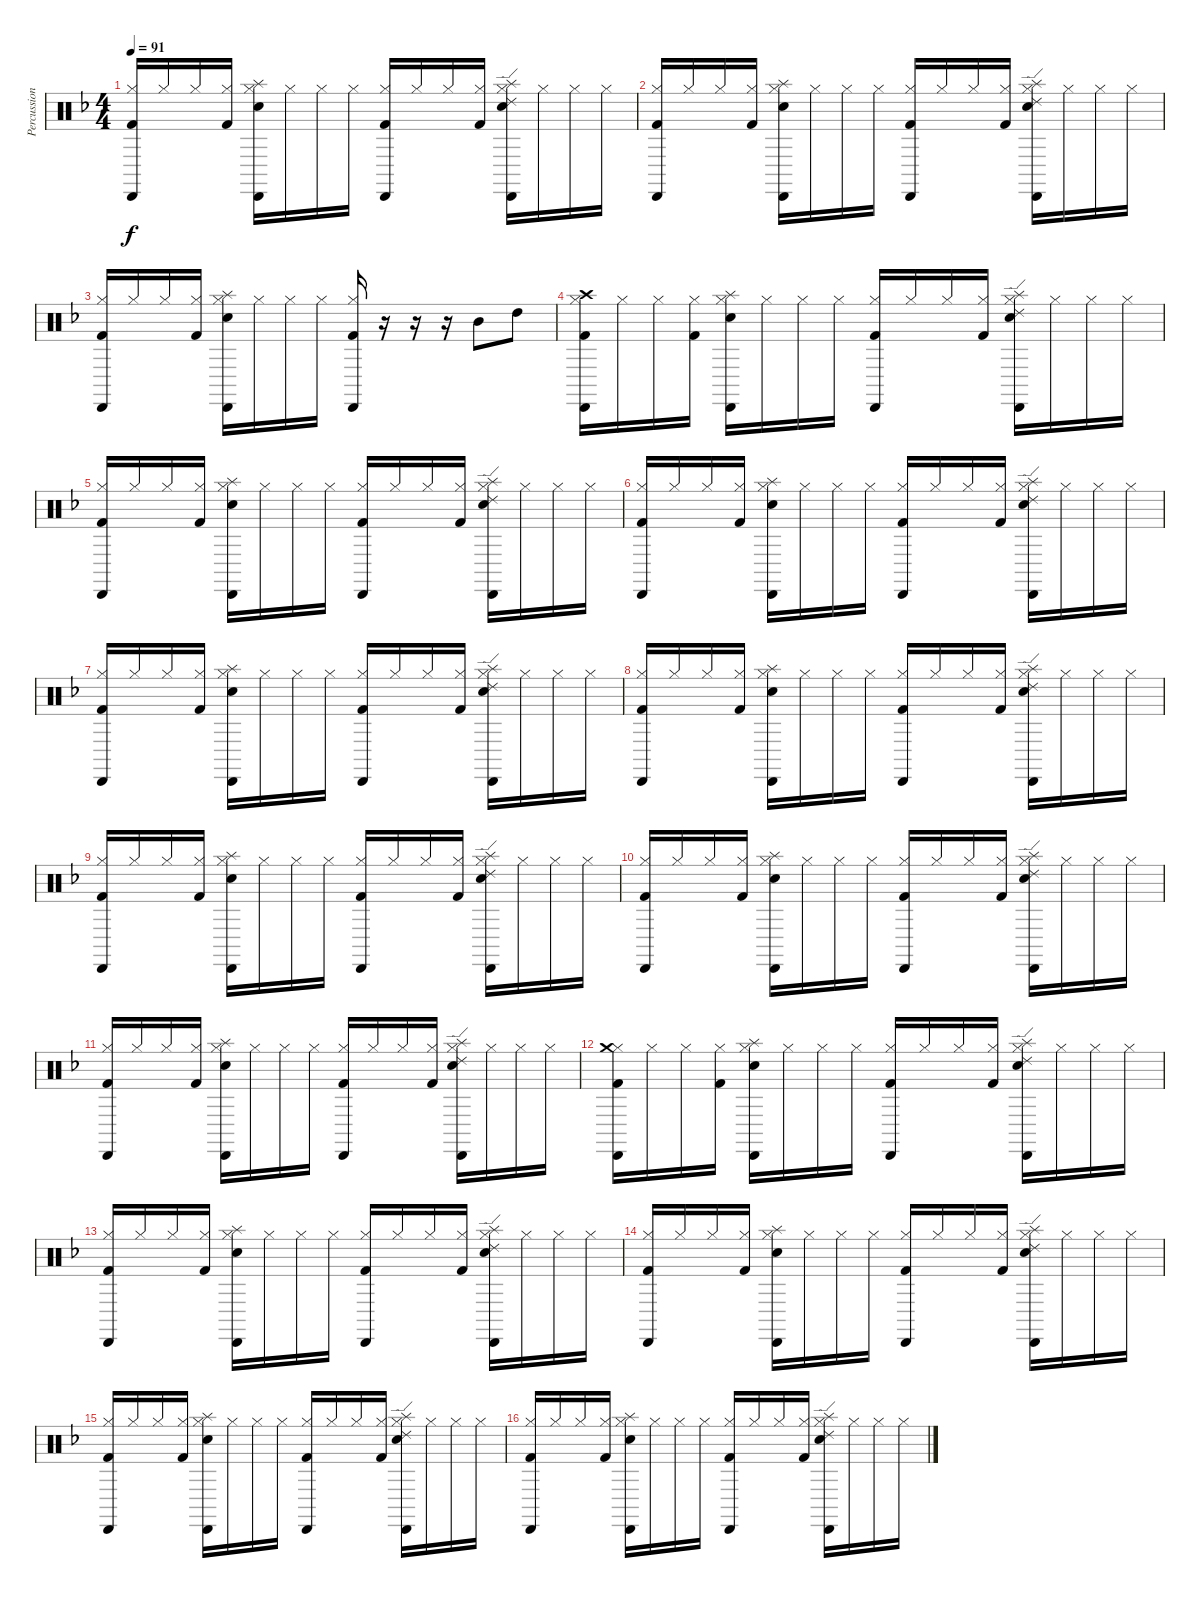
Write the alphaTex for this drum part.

\track ("Percussion" "Percussion") {instrument percussion}
\staff {score}
\articulation defaults
\ts (4 4)
\tempo 91
\clef neutral
\ks dminor
("Hi-Hat (closed)" "Kick (hit) 2" "Cabasa (hit)").16{dy f volume 12} "Hi-Hat (closed)".16 "Hi-Hat (closed)".16 ("Hi-Hat (closed)" "Kick (hit) 2").16 ("Hi-Hat (closed)" "Snare (hit) 2" "Cabasa (hit)" "Splash (hit)").16 "Hi-Hat (closed)".16 "Hi-Hat (closed)".16 "Hi-Hat (closed)".16 ("Hi-Hat (closed)" "Kick (hit) 2" "Cabasa (hit)").16 "Hi-Hat (closed)".16 "Hi-Hat (closed)".16 ("Hi-Hat (closed)" "Kick (hit) 2").16 ("Hi-Hat (closed)" "Snare (hit) 2" "Cabasa (hit)" "Ride (edge) 2" "Splash (hit)").16 "Hi-Hat (closed)".16 "Hi-Hat (closed)".16 "Hi-Hat (closed)".16 |
("Hi-Hat (closed)" "Kick (hit) 2" "Cabasa (hit)").16{volume 12} "Hi-Hat (closed)".16 "Hi-Hat (closed)".16 ("Hi-Hat (closed)" "Kick (hit) 2").16 ("Hi-Hat (closed)" "Snare (hit) 2" "Cabasa (hit)" "Splash (hit)").16 "Hi-Hat (closed)".16 "Hi-Hat (closed)".16 "Hi-Hat (closed)".16 ("Hi-Hat (closed)" "Kick (hit) 2" "Cabasa (hit)").16 "Hi-Hat (closed)".16 "Hi-Hat (closed)".16 ("Hi-Hat (closed)" "Kick (hit) 2").16 ("Hi-Hat (closed)" "Snare (hit) 2" "Cabasa (hit)" "Ride (edge) 2" "Splash (hit)").16 "Hi-Hat (closed)".16 "Hi-Hat (closed)".16 "Hi-Hat (closed)".16 |
("Hi-Hat (closed)" "Kick (hit) 2" "Cabasa (hit)").16{volume 12} "Hi-Hat (closed)".16 "Hi-Hat (closed)".16 ("Hi-Hat (closed)" "Kick (hit) 2").16 ("Hi-Hat (closed)" "Snare (hit) 2" "Cabasa (hit)" "Splash (hit)").16 "Hi-Hat (closed)".16 "Hi-Hat (closed)".16 "Hi-Hat (closed)".16 ("Hi-Hat (closed)" "Kick (hit) 2" "Cabasa (hit)").16 r.16 r.16 r.16 "Mid Tom (hit)".8 "High Tom (hit)".8 |
("Hi-Hat (closed)" "Kick (hit) 2" "Cabasa (hit)" "Crash high (hit)").16{volume 12} "Hi-Hat (closed)".16 "Hi-Hat (closed)".16 ("Hi-Hat (closed)" "Kick (hit) 2").16 ("Hi-Hat (closed)" "Snare (hit) 2" "Cabasa (hit)" "Splash (hit)").16 "Hi-Hat (closed)".16 "Hi-Hat (closed)".16 "Hi-Hat (closed)".16 ("Hi-Hat (closed)" "Kick (hit) 2" "Cabasa (hit)").16 "Hi-Hat (closed)".16 "Hi-Hat (closed)".16 ("Hi-Hat (closed)" "Kick (hit) 2").16 ("Hi-Hat (closed)" "Snare (hit) 2" "Cabasa (hit)" "Ride (edge) 2" "Splash (hit)").16 "Hi-Hat (closed)".16 "Hi-Hat (closed)".16 "Hi-Hat (closed)".16 |
("Hi-Hat (closed)" "Kick (hit) 2" "Cabasa (hit)").16{volume 12} "Hi-Hat (closed)".16 "Hi-Hat (closed)".16 ("Hi-Hat (closed)" "Kick (hit) 2").16 ("Hi-Hat (closed)" "Snare (hit) 2" "Cabasa (hit)" "Splash (hit)").16 "Hi-Hat (closed)".16 "Hi-Hat (closed)".16 "Hi-Hat (closed)".16 ("Hi-Hat (closed)" "Kick (hit) 2" "Cabasa (hit)").16 "Hi-Hat (closed)".16 "Hi-Hat (closed)".16 ("Hi-Hat (closed)" "Kick (hit) 2").16 ("Hi-Hat (closed)" "Snare (hit) 2" "Cabasa (hit)" "Ride (edge) 2" "Splash (hit)").16 "Hi-Hat (closed)".16 "Hi-Hat (closed)".16 "Hi-Hat (closed)".16 |
("Hi-Hat (closed)" "Kick (hit) 2" "Cabasa (hit)").16{volume 12} "Hi-Hat (closed)".16 "Hi-Hat (closed)".16 ("Hi-Hat (closed)" "Kick (hit) 2").16 ("Hi-Hat (closed)" "Snare (hit) 2" "Cabasa (hit)" "Splash (hit)").16 "Hi-Hat (closed)".16 "Hi-Hat (closed)".16 "Hi-Hat (closed)".16 ("Hi-Hat (closed)" "Kick (hit) 2" "Cabasa (hit)").16 "Hi-Hat (closed)".16 "Hi-Hat (closed)".16 ("Hi-Hat (closed)" "Kick (hit) 2").16 ("Hi-Hat (closed)" "Snare (hit) 2" "Cabasa (hit)" "Ride (edge) 2" "Splash (hit)").16 "Hi-Hat (closed)".16 "Hi-Hat (closed)".16 "Hi-Hat (closed)".16 |
("Hi-Hat (closed)" "Kick (hit) 2" "Cabasa (hit)").16{volume 12} "Hi-Hat (closed)".16 "Hi-Hat (closed)".16 ("Hi-Hat (closed)" "Kick (hit) 2").16 ("Hi-Hat (closed)" "Snare (hit) 2" "Cabasa (hit)" "Splash (hit)").16 "Hi-Hat (closed)".16 "Hi-Hat (closed)".16 "Hi-Hat (closed)".16 ("Hi-Hat (closed)" "Kick (hit) 2" "Cabasa (hit)").16 "Hi-Hat (closed)".16 "Hi-Hat (closed)".16 ("Hi-Hat (closed)" "Kick (hit) 2").16 ("Hi-Hat (closed)" "Snare (hit) 2" "Cabasa (hit)" "Ride (edge) 2" "Splash (hit)").16 "Hi-Hat (closed)".16 "Hi-Hat (closed)".16 "Hi-Hat (closed)".16 |
("Hi-Hat (closed)" "Kick (hit) 2" "Cabasa (hit)").16{volume 12} "Hi-Hat (closed)".16 "Hi-Hat (closed)".16 ("Hi-Hat (closed)" "Kick (hit) 2").16 ("Hi-Hat (closed)" "Snare (hit) 2" "Cabasa (hit)" "Splash (hit)").16 "Hi-Hat (closed)".16 "Hi-Hat (closed)".16 "Hi-Hat (closed)".16 ("Hi-Hat (closed)" "Kick (hit) 2" "Cabasa (hit)").16 "Hi-Hat (closed)".16 "Hi-Hat (closed)".16 ("Hi-Hat (closed)" "Kick (hit) 2").16 ("Hi-Hat (closed)" "Snare (hit) 2" "Cabasa (hit)" "Ride (edge) 2" "Splash (hit)").16 "Hi-Hat (closed)".16 "Hi-Hat (closed)".16 "Hi-Hat (closed)".16 |
("Hi-Hat (closed)" "Kick (hit) 2" "Cabasa (hit)").16{volume 12} "Hi-Hat (closed)".16 "Hi-Hat (closed)".16 ("Hi-Hat (closed)" "Kick (hit) 2").16 ("Hi-Hat (closed)" "Snare (hit) 2" "Cabasa (hit)" "Splash (hit)").16 "Hi-Hat (closed)".16 "Hi-Hat (closed)".16 "Hi-Hat (closed)".16 ("Hi-Hat (closed)" "Kick (hit) 2" "Cabasa (hit)").16 "Hi-Hat (closed)".16 "Hi-Hat (closed)".16 ("Hi-Hat (closed)" "Kick (hit) 2").16 ("Hi-Hat (closed)" "Snare (hit) 2" "Cabasa (hit)" "Ride (edge) 2" "Splash (hit)").16 "Hi-Hat (closed)".16 "Hi-Hat (closed)".16 "Hi-Hat (closed)".16 |
("Hi-Hat (closed)" "Kick (hit) 2" "Cabasa (hit)").16{volume 12} "Hi-Hat (closed)".16 "Hi-Hat (closed)".16 ("Hi-Hat (closed)" "Kick (hit) 2").16 ("Hi-Hat (closed)" "Snare (hit) 2" "Cabasa (hit)" "Splash (hit)").16 "Hi-Hat (closed)".16 "Hi-Hat (closed)".16 "Hi-Hat (closed)".16 ("Hi-Hat (closed)" "Kick (hit) 2" "Cabasa (hit)").16 "Hi-Hat (closed)".16 "Hi-Hat (closed)".16 ("Hi-Hat (closed)" "Kick (hit) 2").16 ("Hi-Hat (closed)" "Snare (hit) 2" "Cabasa (hit)" "Ride (edge) 2" "Splash (hit)").16 "Hi-Hat (closed)".16 "Hi-Hat (closed)".16 "Hi-Hat (closed)".16 |
("Hi-Hat (closed)" "Kick (hit) 2" "Cabasa (hit)").16{volume 12} "Hi-Hat (closed)".16 "Hi-Hat (closed)".16 ("Hi-Hat (closed)" "Kick (hit) 2").16 ("Hi-Hat (closed)" "Snare (hit) 2" "Cabasa (hit)" "Splash (hit)").16 "Hi-Hat (closed)".16 "Hi-Hat (closed)".16 "Hi-Hat (closed)".16 ("Hi-Hat (closed)" "Kick (hit) 2" "Cabasa (hit)").16 "Hi-Hat (closed)".16 "Hi-Hat (closed)".16 ("Hi-Hat (closed)" "Kick (hit) 2").16 ("Hi-Hat (closed)" "Snare (hit) 2" "Cabasa (hit)" "Ride (edge) 2" "Splash (hit)").16 "Hi-Hat (closed)".16 "Hi-Hat (closed)".16 "Hi-Hat (closed)".16 |
("Hi-Hat (closed)" "Kick (hit) 2" "Cabasa (hit)" "Crash medium (hit)").16{volume 12} "Hi-Hat (closed)".16 "Hi-Hat (closed)".16 ("Hi-Hat (closed)" "Kick (hit) 2").16 ("Hi-Hat (closed)" "Snare (hit) 2" "Cabasa (hit)" "Splash (hit)").16 "Hi-Hat (closed)".16 "Hi-Hat (closed)".16 "Hi-Hat (closed)".16 ("Hi-Hat (closed)" "Kick (hit) 2" "Cabasa (hit)").16 "Hi-Hat (closed)".16 "Hi-Hat (closed)".16 ("Hi-Hat (closed)" "Kick (hit) 2").16 ("Hi-Hat (closed)" "Snare (hit) 2" "Cabasa (hit)" "Ride (edge) 2" "Splash (hit)").16 "Hi-Hat (closed)".16 "Hi-Hat (closed)".16 "Hi-Hat (closed)".16 |
("Hi-Hat (closed)" "Kick (hit) 2" "Cabasa (hit)").16{volume 12} "Hi-Hat (closed)".16 "Hi-Hat (closed)".16 ("Hi-Hat (closed)" "Kick (hit) 2").16 ("Hi-Hat (closed)" "Snare (hit) 2" "Cabasa (hit)" "Splash (hit)").16 "Hi-Hat (closed)".16 "Hi-Hat (closed)".16 "Hi-Hat (closed)".16 ("Hi-Hat (closed)" "Kick (hit) 2" "Cabasa (hit)").16 "Hi-Hat (closed)".16 "Hi-Hat (closed)".16 ("Hi-Hat (closed)" "Kick (hit) 2").16 ("Hi-Hat (closed)" "Snare (hit) 2" "Cabasa (hit)" "Ride (edge) 2" "Splash (hit)").16 "Hi-Hat (closed)".16 "Hi-Hat (closed)".16 "Hi-Hat (closed)".16 |
("Hi-Hat (closed)" "Kick (hit) 2" "Cabasa (hit)").16{volume 12} "Hi-Hat (closed)".16 "Hi-Hat (closed)".16 ("Hi-Hat (closed)" "Kick (hit) 2").16 ("Hi-Hat (closed)" "Snare (hit) 2" "Cabasa (hit)" "Splash (hit)").16 "Hi-Hat (closed)".16 "Hi-Hat (closed)".16 "Hi-Hat (closed)".16 ("Hi-Hat (closed)" "Kick (hit) 2" "Cabasa (hit)").16 "Hi-Hat (closed)".16 "Hi-Hat (closed)".16 ("Hi-Hat (closed)" "Kick (hit) 2").16 ("Hi-Hat (closed)" "Snare (hit) 2" "Cabasa (hit)" "Ride (edge) 2" "Splash (hit)").16 "Hi-Hat (closed)".16 "Hi-Hat (closed)".16 "Hi-Hat (closed)".16 |
("Hi-Hat (closed)" "Kick (hit) 2" "Cabasa (hit)").16{volume 12} "Hi-Hat (closed)".16 "Hi-Hat (closed)".16 ("Hi-Hat (closed)" "Kick (hit) 2").16 ("Hi-Hat (closed)" "Snare (hit) 2" "Cabasa (hit)" "Splash (hit)").16 "Hi-Hat (closed)".16 "Hi-Hat (closed)".16 "Hi-Hat (closed)".16 ("Hi-Hat (closed)" "Kick (hit) 2" "Cabasa (hit)").16 "Hi-Hat (closed)".16 "Hi-Hat (closed)".16 ("Hi-Hat (closed)" "Kick (hit) 2").16 ("Hi-Hat (closed)" "Snare (hit) 2" "Cabasa (hit)" "Ride (edge) 2" "Splash (hit)").16 "Hi-Hat (closed)".16 "Hi-Hat (closed)".16 "Hi-Hat (closed)".16 |
("Hi-Hat (closed)" "Kick (hit) 2" "Cabasa (hit)").16{volume 12} "Hi-Hat (closed)".16 "Hi-Hat (closed)".16 ("Hi-Hat (closed)" "Kick (hit) 2").16 ("Hi-Hat (closed)" "Snare (hit) 2" "Cabasa (hit)" "Splash (hit)").16 "Hi-Hat (closed)".16 "Hi-Hat (closed)".16 "Hi-Hat (closed)".16 ("Hi-Hat (closed)" "Kick (hit) 2" "Cabasa (hit)").16 "Hi-Hat (closed)".16 "Hi-Hat (closed)".16 ("Hi-Hat (closed)" "Kick (hit) 2").16 ("Hi-Hat (closed)" "Snare (hit) 2" "Cabasa (hit)" "Ride (edge) 2" "Splash (hit)").16 "Hi-Hat (closed)".16 "Hi-Hat (closed)".16 "Hi-Hat (closed)".16
